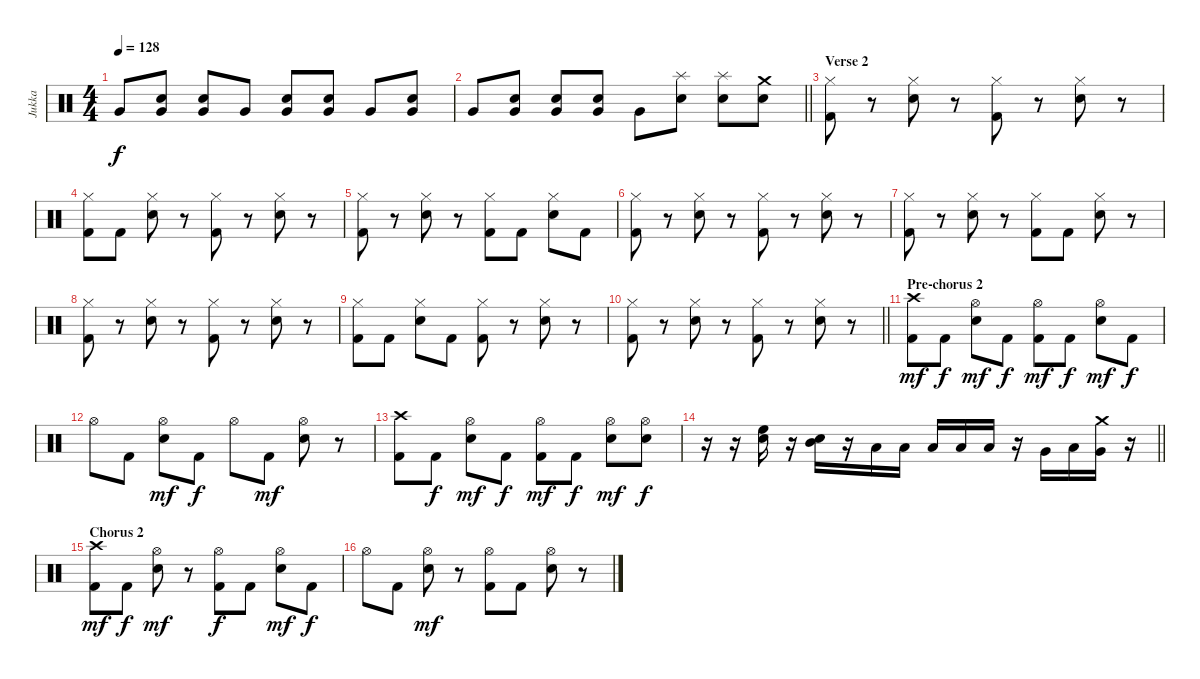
\track ("Jukka" "Jukka") {instrument percussion}
\staff {score}
\articulation defaults
\ts (4 4)
\tempo 128
\clef neutral
\ks c "Very Low Tom (hit)".8{dy f}
("Electric Snare (hit)" "Very Low Tom (hit)").8 ("Electric Snare (hit)" "Very Low Tom (hit)").8 "Very Low Tom (hit)".8 ("Electric Snare (hit)" "Very Low Tom (hit)").8 ("Electric Snare (hit)" "Very Low Tom (hit)").8 "Very Low Tom (hit)".8 ("Electric Snare (hit)" "Very Low Tom (hit)").8 |
\barLineRight lightlight "Very Low Tom (hit)".8
("Electric Snare (hit)" "Very Low Tom (hit)").8 ("Electric Snare (hit)" "Very Low Tom (hit)").8 ("Electric Snare (hit)" "Very Low Tom (hit)").8 "Very Low Tom (hit)".8 ("Electric Snare (hit)" "Splash (hit)").8 ("Electric Snare (hit)" "Splash (hit)").8 ("Electric Snare (hit)" "Crash medium (hit)").8 |
\section ("" "Verse 2")
("Kick (hit) 2" "Hi-Hat (closed)").8 r.8 ("Electric Snare (hit)" "Hi-Hat (closed)").8 r.8 ("Kick (hit) 2" "Hi-Hat (closed)").8 r.8 ("Electric Snare (hit)" "Hi-Hat (closed)").8 r.8 |
("Kick (hit) 2" "Hi-Hat (closed)").8 "Kick (hit) 2".8 ("Electric Snare (hit)" "Hi-Hat (closed)").8 r.8 ("Kick (hit) 2" "Hi-Hat (closed)").8 r.8 ("Electric Snare (hit)" "Hi-Hat (closed)").8 r.8 |
("Kick (hit) 2" "Hi-Hat (closed)").8 r.8 ("Electric Snare (hit)" "Hi-Hat (closed)").8 r.8 ("Kick (hit) 2" "Hi-Hat (closed)").8 "Kick (hit) 2".8 ("Electric Snare (hit)" "Hi-Hat (closed)").8 "Kick (hit) 2".8 |
("Kick (hit) 2" "Hi-Hat (closed)").8 r.8 ("Electric Snare (hit)" "Hi-Hat (closed)").8 r.8 ("Kick (hit) 2" "Hi-Hat (closed)").8 r.8 ("Electric Snare (hit)" "Hi-Hat (closed)").8 r.8 |
("Kick (hit) 2" "Hi-Hat (closed)").8 r.8 ("Electric Snare (hit)" "Hi-Hat (closed)").8 r.8 ("Kick (hit) 2" "Hi-Hat (closed)").8 "Kick (hit) 2".8 ("Electric Snare (hit)" "Hi-Hat (closed)").8 r.8 |
("Kick (hit) 2" "Hi-Hat (closed)").8 r.8 ("Electric Snare (hit)" "Hi-Hat (closed)").8 r.8 ("Kick (hit) 2" "Hi-Hat (closed)").8 r.8 ("Electric Snare (hit)" "Hi-Hat (closed)").8 r.8 |
("Kick (hit) 2" "Hi-Hat (closed)").8 "Kick (hit) 2".8 ("Electric Snare (hit)" "Hi-Hat (closed)").8 "Kick (hit) 2".8 ("Kick (hit) 2" "Hi-Hat (closed)").8 r.8 ("Electric Snare (hit)" "Hi-Hat (closed)").8 r.8 |
\barLineRight lightlight
("Kick (hit) 2" "Hi-Hat (closed)").8 r.8 ("Electric Snare (hit)" "Hi-Hat (closed)").8 r.8 ("Kick (hit) 2" "Hi-Hat (closed)").8 r.8 ("Electric Snare (hit)" "Hi-Hat (closed)").8 r.8 |
\section ("" "Pre-chorus 2")
("Kick (hit) 2" "Crash high (hit)").8{dy mf} "Kick (hit) 2".8{dy f} ("Electric Snare (hit)" "Hi-Hat (open)").8{dy mf} "Kick (hit) 2".8{dy f} ("Kick (hit) 2" "Hi-Hat (open)").8{dy mf} "Kick (hit) 2".8{dy f} ("Electric Snare (hit)" "Hi-Hat (open)").8{dy mf} "Kick (hit) 2".8{dy f} |
"Hi-Hat (open)".8 "Kick (hit) 2".8 ("Electric Snare (hit)" "Hi-Hat (open)").8{dy mf} "Kick (hit) 2".8{dy f} "Hi-Hat (open)".8 "Kick (hit) 2".8{dy mf} ("Electric Snare (hit)" "Hi-Hat (open)").8 r.8 |
("Kick (hit) 2" "Crash high (hit)").8 "Kick (hit) 2".8{dy f} ("Electric Snare (hit)" "Hi-Hat (open)").8{dy mf} "Kick (hit) 2".8{dy f} ("Kick (hit) 2" "Hi-Hat (open)").8{dy mf} "Kick (hit) 2".8{dy f} ("Electric Snare (hit)" "Hi-Hat (open)").8{dy mf} ("Electric Snare (hit)" "Hi-Hat (open)").8{dy f} |
\barLineRight lightlight
r.16 r.16 ("Electric Snare (hit)" "High Floor Tom (hit)").16 r.16 ("Electric Snare (hit)" "Mid Tom (hit)").16 r.16 "Low Tom (hit)".16 "Low Tom (hit)".16 "Low Tom (hit)".16 "Low Tom (hit)".16 "Low Tom (hit)".16 r.16 "Very Low Tom (hit)".16 "Low Floor Tom (hit)".16 ("Crash medium (hit)" "Very Low Tom (hit)").16 r.16 |
\section ("" "Chorus 2")
("Kick (hit) 2" "Crash high (hit)").8{dy mf} "Kick (hit) 2".8{dy f} ("Electric Snare (hit)" "Hi-Hat (open)").8{dy mf} r.8 ("Kick (hit) 2" "Hi-Hat (open)").8{dy f} "Kick (hit) 2".8 ("Electric Snare (hit)" "Hi-Hat (open)").8{dy mf} "Kick (hit) 2".8{dy f} |
"Hi-Hat (open)".8 "Kick (hit) 2".8 ("Electric Snare (hit)" "Hi-Hat (open)").8{dy mf} r.8 ("Kick (hit) 2" "Hi-Hat (open)").8 "Kick (hit) 2".8 ("Electric Snare (hit)" "Hi-Hat (open)").8 r.8
